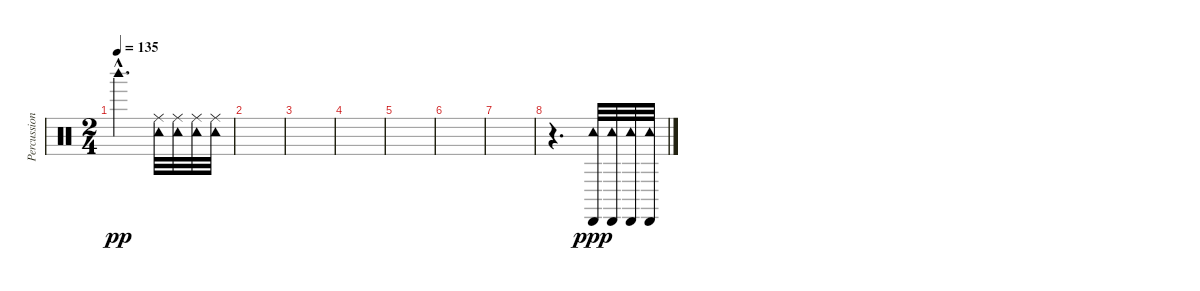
\track ("Percussions" "Percussion") {instrument percussion}
\staff {score}
\articulation defaults
\ts (2 4)
\tempo 135
\clef neutral
\ks c "Woodblock high (hit)"{hac}.4{d dy pp}
("Tambourine (hit)" "Ride (middle)").32 ("Tambourine (hit)" "Ride (middle)").32 ("Tambourine (hit)" "Ride (middle)").32 ("Tambourine (hit)" "Ride (middle)").32 |
|
|
|
|
|
|
r.4{d} ("Tambourine (hit)" "Cabasa (hit)").32{dy ppp} ("Tambourine (hit)" "Cabasa (hit)").32 ("Tambourine (hit)" "Cabasa (hit)").32 ("Tambourine (hit)" "Cabasa (hit)").32
